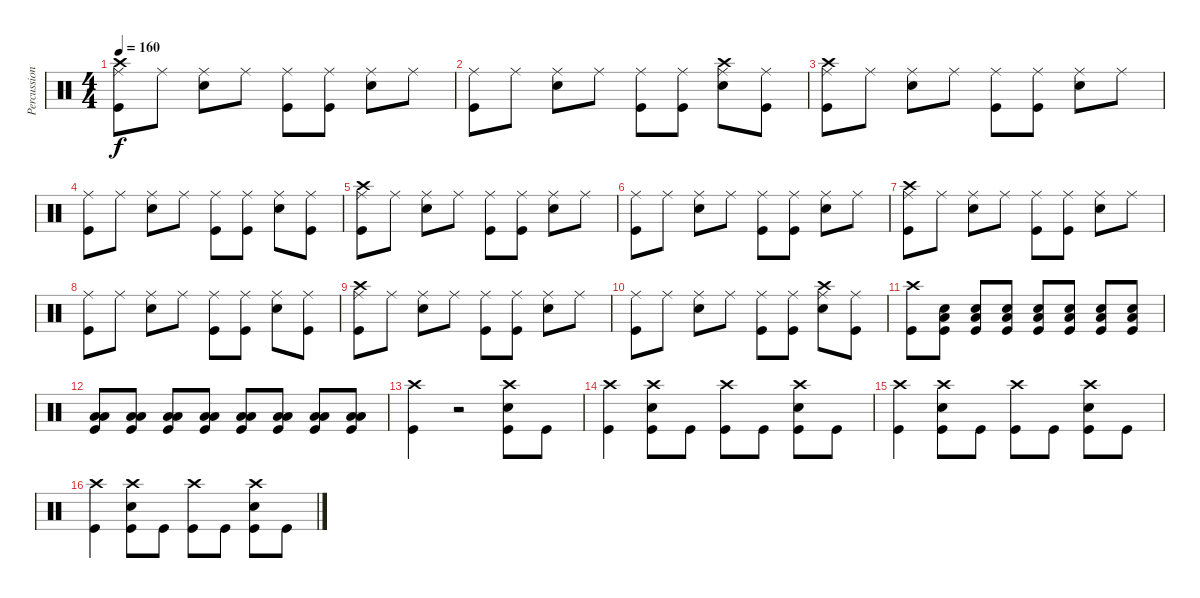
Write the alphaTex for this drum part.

\track ("Percussions" "Percussion") {instrument percussion}
\staff {score}
\articulation defaults
\ts (4 4)
\tempo 160
\clef neutral
\ks c
("Ride (middle)" "Crash high (hit)" "Kick (hit)").8{dy f} "Ride (middle)".8 ("Ride (middle)" "Snare (hit) 2").8 "Ride (middle)".8 ("Ride (middle)" "Kick (hit)").8 ("Ride (middle)" "Kick (hit)").8 ("Ride (middle)" "Snare (hit) 2").8 "Ride (middle)".8 |
("Ride (middle)" "Kick (hit)").8 "Ride (middle)".8 ("Ride (middle)" "Snare (hit) 2").8 "Ride (middle)".8 ("Ride (middle)" "Kick (hit)").8 ("Ride (middle)" "Kick (hit)").8 ("Ride (middle)" "Crash high (hit)" "Snare (hit) 2").8 ("Ride (middle)" "Kick (hit)").8 |
("Ride (middle)" "Crash high (hit)" "Kick (hit)").8 "Ride (middle)".8 ("Ride (middle)" "Snare (hit) 2").8 "Ride (middle)".8 ("Ride (middle)" "Kick (hit)").8 ("Ride (middle)" "Kick (hit)").8 ("Ride (middle)" "Snare (hit) 2").8 "Ride (middle)".8 |
("Ride (middle)" "Kick (hit)").8 "Ride (middle)".8 ("Ride (middle)" "Snare (hit) 2").8 "Ride (middle)".8 ("Ride (middle)" "Kick (hit)").8 ("Ride (middle)" "Kick (hit)").8 ("Ride (middle)" "Snare (hit) 2").8 ("Ride (middle)" "Kick (hit)").8 |
("Ride (middle)" "Crash high (hit)" "Kick (hit)").8 "Ride (middle)".8 ("Ride (middle)" "Snare (hit) 2").8 "Ride (middle)".8 ("Ride (middle)" "Kick (hit)").8 ("Ride (middle)" "Kick (hit)").8 ("Ride (middle)" "Snare (hit) 2").8 "Ride (middle)".8 |
("Ride (middle)" "Kick (hit)").8 "Ride (middle)".8 ("Ride (middle)" "Snare (hit) 2").8 "Ride (middle)".8 ("Ride (middle)" "Kick (hit)").8 ("Ride (middle)" "Kick (hit)").8 ("Ride (middle)" "Snare (hit) 2").8 "Ride (middle)".8 |
("Ride (middle)" "Crash high (hit)" "Kick (hit)").8 "Ride (middle)".8 ("Ride (middle)" "Snare (hit) 2").8 "Ride (middle)".8 ("Ride (middle)" "Kick (hit)").8 ("Ride (middle)" "Kick (hit)").8 ("Ride (middle)" "Snare (hit) 2").8 "Ride (middle)".8 |
("Ride (middle)" "Kick (hit)").8 "Ride (middle)".8 ("Ride (middle)" "Snare (hit) 2").8 "Ride (middle)".8 ("Ride (middle)" "Kick (hit)").8 ("Ride (middle)" "Kick (hit)").8 ("Ride (middle)" "Snare (hit) 2").8 ("Ride (middle)" "Kick (hit)").8 |
("Ride (middle)" "Crash high (hit)" "Kick (hit)").8 "Ride (middle)".8 ("Ride (middle)" "Snare (hit) 2").8 "Ride (middle)".8 ("Ride (middle)" "Kick (hit)").8 ("Ride (middle)" "Kick (hit)").8 ("Ride (middle)" "Snare (hit) 2").8 "Ride (middle)".8 |
("Ride (middle)" "Kick (hit)").8 "Ride (middle)".8 ("Ride (middle)" "Snare (hit) 2").8 "Ride (middle)".8 ("Ride (middle)" "Kick (hit)").8 ("Ride (middle)" "Kick (hit)").8 ("Ride (middle)" "Crash high (hit)" "Snare (hit) 2").8 ("Ride (middle)" "Kick (hit)").8 |
("Crash high (hit)" "Kick (hit)").8 ("Low Tom (hit)" "Snare (hit) 2" "Kick (hit)").8 ("Low Tom (hit)" "Snare (hit) 2" "Kick (hit)").8 ("Low Tom (hit)" "Snare (hit) 2" "Kick (hit)").8 ("Low Tom (hit)" "Snare (hit) 2" "Kick (hit)").8 ("Low Tom (hit)" "Snare (hit) 2" "Kick (hit)").8 ("Low Tom (hit)" "Snare (hit) 2" "Kick (hit)").8 ("Low Tom (hit)" "Snare (hit) 2" "Kick (hit)").8 |
("Low Floor Tom (hit)" "Low Floor Tom (hit)" "Kick (hit)").8 ("Low Floor Tom (hit)" "Low Floor Tom (hit)" "Kick (hit)").8 ("Low Floor Tom (hit)" "Low Floor Tom (hit)" "Kick (hit)").8 ("Low Floor Tom (hit)" "Low Floor Tom (hit)" "Kick (hit)").8 ("Low Floor Tom (hit)" "Low Floor Tom (hit)" "Kick (hit)").8 ("Low Floor Tom (hit)" "Low Floor Tom (hit)" "Kick (hit)").8 ("Low Floor Tom (hit)" "Low Floor Tom (hit)" "Kick (hit)").8 ("Low Floor Tom (hit)" "Low Floor Tom (hit)" "Kick (hit)").8 |
("Crash high (hit)" "Kick (hit)").4 r.2 ("Crash high (hit)" "Snare (hit) 2" "Kick (hit)").8 "Kick (hit)".8 |
("Crash high (hit)" "Kick (hit)").4 ("Crash high (hit)" "Snare (hit) 2" "Kick (hit)").8 "Kick (hit)".8 ("Crash high (hit)" "Kick (hit)").8 "Kick (hit)".8 ("Crash high (hit)" "Snare (hit) 2" "Kick (hit)").8 "Kick (hit)".8 |
("Crash high (hit)" "Kick (hit)").4 ("Crash high (hit)" "Snare (hit) 2" "Kick (hit)").8 "Kick (hit)".8 ("Crash high (hit)" "Kick (hit)").8 "Kick (hit)".8 ("Crash high (hit)" "Snare (hit) 2" "Kick (hit)").8 "Kick (hit)".8 |
("Crash high (hit)" "Kick (hit)").4 ("Crash high (hit)" "Snare (hit) 2" "Kick (hit)").8 "Kick (hit)".8 ("Crash high (hit)" "Kick (hit)").8 "Kick (hit)".8 ("Crash high (hit)" "Snare (hit) 2" "Kick (hit)").8 "Kick (hit)".8
